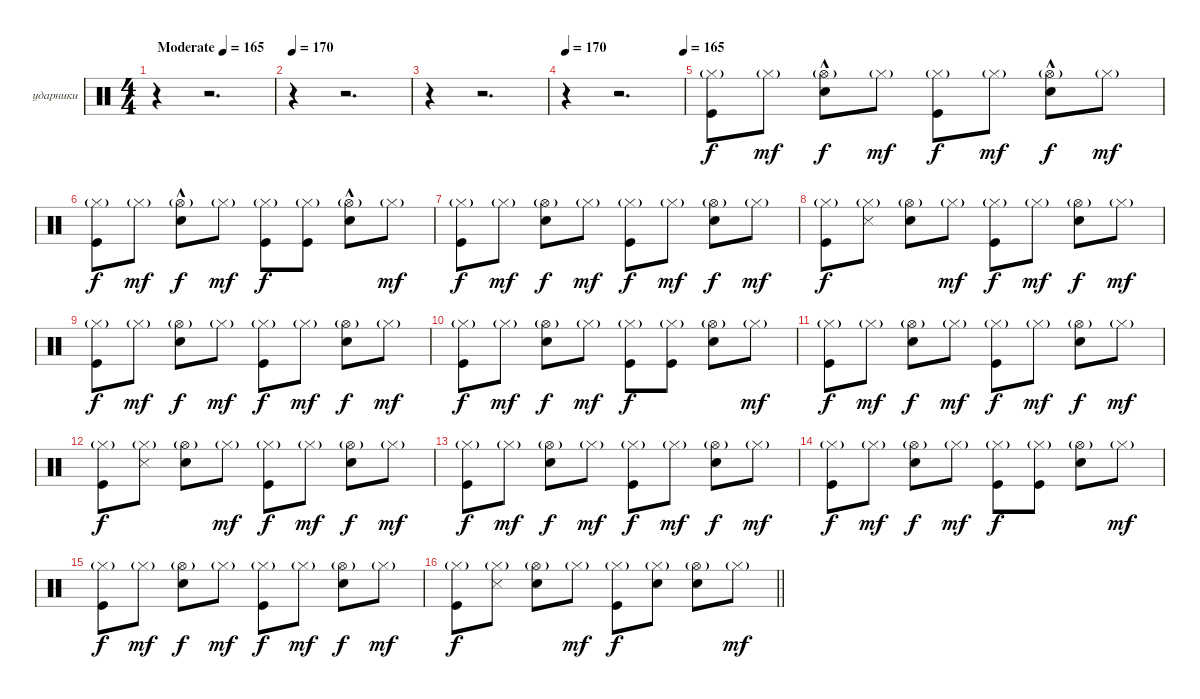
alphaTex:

\bracketExtendMode groupsimilarinstruments
\firstSystemTrackNameOrientation horizontal
\otherSystemsTrackNameOrientation horizontal
\track ("Георгий Гурьянов" "ударники") {instrument percussion}
\staff {score}
\articulation defaults
\ts (4 4)
\beaming (8 2 2 2 2)
\tempo (165 "Moderate")
\clef neutral
\scale
0.474178
\ks c
r.4{dy f} r.2{d} |
\tempo 170
\scale
0.262911 r.4 r.2{d} |
\scale
0.262911 r.4 r.2{d} |
\tempo 170
\tempo (165 1)
\scale
0.333333 r.4 r.2{d} |
\scale
0.333333 ("Hi-Hat (closed)"{g} "Kick (hit)").8 "Hi-Hat (closed)"{g}.8{dy mf} ("Hi-Hat (open)"{g} "Snare (hit) 2"{hac}).8{dy f} "Hi-Hat (closed)"{g}.8{dy mf} ("Hi-Hat (closed)"{g} "Kick (hit)").8{dy f} "Hi-Hat (closed)"{g}.8{dy mf} ("Hi-Hat (open)"{g} "Snare (hit) 2"{hac}).8{dy f} "Hi-Hat (closed)"{g}.8{dy mf} |
\scale
0.333333 ("Hi-Hat (closed)"{g} "Kick (hit)").8{dy f} "Hi-Hat (closed)"{g}.8{dy mf} ("Hi-Hat (open)"{g} "Snare (hit) 2"{hac}).8{dy f} "Hi-Hat (closed)"{g}.8{dy mf} ("Hi-Hat (closed)"{g} "Kick (hit)").8{dy f} ("Hi-Hat (closed)"{g} "Kick (hit)").8 ("Hi-Hat (open)"{g} "Snare (hit) 2"{hac}).8 "Hi-Hat (closed)"{g}.8{dy mf} |
\scale
0.333333 ("Hi-Hat (closed)"{g} "Kick (hit)").8{dy f} "Hi-Hat (closed)"{g}.8{dy mf} ("Hi-Hat (open)"{g} "Snare (hit) 2").8{dy f} "Hi-Hat (closed)"{g}.8{dy mf} ("Hi-Hat (closed)"{g} "Kick (hit)").8{dy f} "Hi-Hat (closed)"{g}.8{dy mf} ("Hi-Hat (open)"{g} "Snare (hit) 2").8{dy f} "Hi-Hat (closed)"{g}.8{dy mf} |
\scale
0.333333 ("Hi-Hat (closed)"{g} "Kick (hit)").8{dy f} ("Hi-Hat (closed)"{g} "Snare (side stick) 3").8 ("Hi-Hat (open)"{g} "Snare (hit) 2").8 "Hi-Hat (closed)"{g}.8{dy mf} ("Hi-Hat (closed)"{g} "Kick (hit)").8{dy f} "Hi-Hat (closed)"{g}.8{dy mf} ("Hi-Hat (open)"{g} "Snare (hit) 2").8{dy f} "Hi-Hat (closed)"{g}.8{dy mf} |
\scale
0.333333 ("Hi-Hat (closed)"{g} "Kick (hit)").8{dy f} "Hi-Hat (closed)"{g}.8{dy mf} ("Hi-Hat (open)"{g} "Snare (hit) 2").8{dy f} "Hi-Hat (closed)"{g}.8{dy mf} ("Hi-Hat (closed)"{g} "Kick (hit)").8{dy f} "Hi-Hat (closed)"{g}.8{dy mf} ("Hi-Hat (open)"{g} "Snare (hit) 2").8{dy f} "Hi-Hat (closed)"{g}.8{dy mf} |
\scale
0.333333 ("Hi-Hat (closed)"{g} "Kick (hit)").8{dy f} "Hi-Hat (closed)"{g}.8{dy mf} ("Hi-Hat (open)"{g} "Snare (hit) 2").8{dy f} "Hi-Hat (closed)"{g}.8{dy mf} ("Hi-Hat (closed)"{g} "Kick (hit)").8{dy f} ("Hi-Hat (closed)"{g} "Kick (hit)").8 ("Hi-Hat (open)"{g} "Snare (hit) 2").8 "Hi-Hat (closed)"{g}.8{dy mf} |
\scale
0.333333 ("Hi-Hat (closed)"{g} "Kick (hit)").8{dy f} "Hi-Hat (closed)"{g}.8{dy mf} ("Hi-Hat (open)"{g} "Snare (hit) 2").8{dy f} "Hi-Hat (closed)"{g}.8{dy mf} ("Hi-Hat (closed)"{g} "Kick (hit)").8{dy f} "Hi-Hat (closed)"{g}.8{dy mf} ("Hi-Hat (open)"{g} "Snare (hit) 2").8{dy f} "Hi-Hat (closed)"{g}.8{dy mf} |
\scale
0.333333 ("Hi-Hat (closed)"{g} "Kick (hit)").8{dy f} ("Hi-Hat (closed)"{g} "Snare (side stick) 3").8 ("Hi-Hat (open)"{g} "Snare (hit) 2").8 "Hi-Hat (closed)"{g}.8{dy mf} ("Hi-Hat (closed)"{g} "Kick (hit)").8{dy f} "Hi-Hat (closed)"{g}.8{dy mf} ("Hi-Hat (open)"{g} "Snare (hit) 2").8{dy f} "Hi-Hat (closed)"{g}.8{dy mf} |
\scale
0.333333 ("Hi-Hat (closed)"{g} "Kick (hit)").8{dy f} "Hi-Hat (closed)"{g}.8{dy mf} ("Hi-Hat (open)"{g} "Snare (hit) 2").8{dy f} "Hi-Hat (closed)"{g}.8{dy mf} ("Hi-Hat (closed)"{g} "Kick (hit)").8{dy f} "Hi-Hat (closed)"{g}.8{dy mf} ("Hi-Hat (open)"{g} "Snare (hit) 2").8{dy f} "Hi-Hat (closed)"{g}.8{dy mf} |
\scale
0.333333 ("Hi-Hat (closed)"{g} "Kick (hit)").8{dy f} "Hi-Hat (closed)"{g}.8{dy mf} ("Hi-Hat (open)"{g} "Snare (hit) 2").8{dy f} "Hi-Hat (closed)"{g}.8{dy mf} ("Hi-Hat (closed)"{g} "Kick (hit)").8{dy f} ("Hi-Hat (closed)"{g} "Kick (hit)").8 ("Hi-Hat (open)"{g} "Snare (hit) 2").8 "Hi-Hat (closed)"{g}.8{dy mf} |
\scale
0.333333 ("Hi-Hat (closed)"{g} "Kick (hit)").8{dy f} "Hi-Hat (closed)"{g}.8{dy mf} ("Hi-Hat (open)"{g} "Snare (hit) 2").8{dy f} "Hi-Hat (closed)"{g}.8{dy mf} ("Hi-Hat (closed)"{g} "Kick (hit)").8{dy f} "Hi-Hat (closed)"{g}.8{dy mf} ("Hi-Hat (open)"{g} "Snare (hit) 2").8{dy f} "Hi-Hat (closed)"{g}.8{dy mf} |
\scale
0.333333
\barLineRight lightlight
("Hi-Hat (closed)"{g} "Kick (hit)").8{dy f} ("Hi-Hat (closed)"{g} "Snare (side stick) 3").8 ("Hi-Hat (open)"{g} "Snare (hit) 2").8 "Hi-Hat (closed)"{g}.8{dy mf} ("Hi-Hat (closed)"{g} "Kick (hit)").8{dy f} ("Hi-Hat (closed)"{g} "Snare (hit) 2").8 ("Hi-Hat (open)"{g} "Snare (hit) 2").8 "Hi-Hat (closed)"{g}.8{dy mf}
